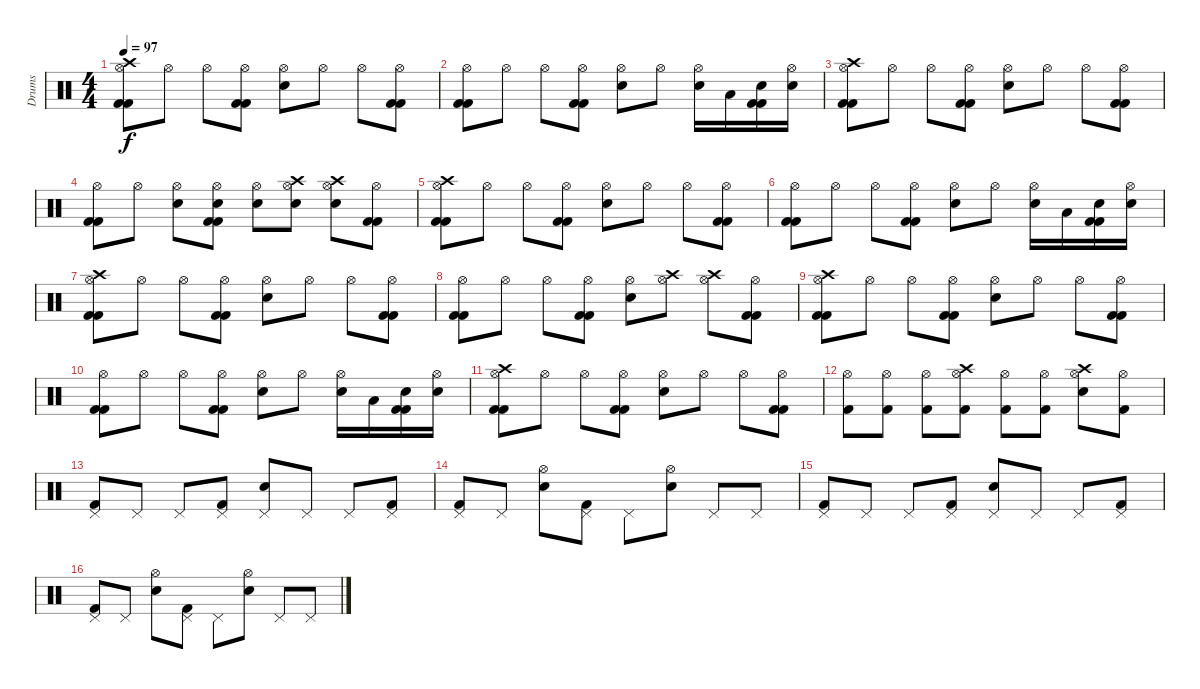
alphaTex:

\track ("Drums" "Drums") {instrument percussion}
\staff {score}
\articulation defaults
\ts (4 4)
\tempo 97
\clef neutral
\ks c
("Hi-Hat (open)" "Crash high (hit)" "Kick (hit) 2" "Kick (hit) 2").8{dy f} "Hi-Hat (open)".8 "Hi-Hat (open)".8 ("Hi-Hat (open)" "Kick (hit) 2" "Kick (hit) 2").8 ("Hi-Hat (open)" "Electric Snare (hit)").8 "Hi-Hat (open)".8 "Hi-Hat (open)".8 ("Hi-Hat (open)" "Kick (hit) 2" "Kick (hit) 2").8 |
("Hi-Hat (open)" "Kick (hit) 2" "Kick (hit) 2").8 "Hi-Hat (open)".8 "Hi-Hat (open)".8 ("Hi-Hat (open)" "Kick (hit) 2" "Kick (hit) 2").8 ("Hi-Hat (open)" "Electric Snare (hit)").8 "Hi-Hat (open)".8 ("Hi-Hat (open)" "Electric Snare (hit)").16 "Low Tom (hit)".16 ("Electric Snare (hit)" "Kick (hit) 2" "Kick (hit) 2").16 ("Hi-Hat (open)" "Electric Snare (hit)").16 |
("Hi-Hat (open)" "Crash high (hit)" "Kick (hit) 2" "Kick (hit) 2").8 "Hi-Hat (open)".8 "Hi-Hat (open)".8 ("Hi-Hat (open)" "Kick (hit) 2" "Kick (hit) 2").8 ("Hi-Hat (open)" "Electric Snare (hit)").8 "Hi-Hat (open)".8 "Hi-Hat (open)".8 ("Hi-Hat (open)" "Kick (hit) 2" "Kick (hit) 2").8 |
("Hi-Hat (open)" "Kick (hit) 2" "Kick (hit) 2").8 "Hi-Hat (open)".8 ("Hi-Hat (open)" "Snare (hit) 2").8 ("Hi-Hat (open)" "Kick (hit) 2" "Snare (hit) 2" "Kick (hit) 2").8 ("Hi-Hat (open)" "Electric Snare (hit)").8 ("Hi-Hat (open)" "Crash high (hit)" "Snare (hit) 2").8 ("Hi-Hat (open)" "Crash high (hit)" "Snare (hit) 2").8 ("Hi-Hat (open)" "Kick (hit) 2" "Kick (hit) 2").8 |
("Hi-Hat (open)" "Crash high (hit)" "Kick (hit) 2" "Kick (hit) 2").8 "Hi-Hat (open)".8 "Hi-Hat (open)".8 ("Hi-Hat (open)" "Kick (hit) 2" "Kick (hit) 2").8 ("Hi-Hat (open)" "Electric Snare (hit)").8 "Hi-Hat (open)".8 "Hi-Hat (open)".8 ("Hi-Hat (open)" "Kick (hit) 2" "Kick (hit) 2").8 |
("Hi-Hat (open)" "Kick (hit) 2" "Kick (hit) 2").8 "Hi-Hat (open)".8 "Hi-Hat (open)".8 ("Hi-Hat (open)" "Kick (hit) 2" "Kick (hit) 2").8 ("Hi-Hat (open)" "Electric Snare (hit)").8 "Hi-Hat (open)".8 ("Hi-Hat (open)" "Electric Snare (hit)").16 "Low Tom (hit)".16 ("Electric Snare (hit)" "Kick (hit) 2" "Kick (hit) 2").16 ("Hi-Hat (open)" "Electric Snare (hit)").16 |
("Hi-Hat (open)" "Crash high (hit)" "Kick (hit) 2" "Kick (hit) 2").8 "Hi-Hat (open)".8 "Hi-Hat (open)".8 ("Hi-Hat (open)" "Kick (hit) 2" "Kick (hit) 2").8 ("Hi-Hat (open)" "Electric Snare (hit)").8 "Hi-Hat (open)".8 "Hi-Hat (open)".8 ("Hi-Hat (open)" "Kick (hit) 2" "Kick (hit) 2").8 |
("Hi-Hat (open)" "Kick (hit) 2" "Kick (hit) 2").8 "Hi-Hat (open)".8 "Hi-Hat (open)".8 ("Hi-Hat (open)" "Kick (hit) 2" "Kick (hit) 2").8 ("Hi-Hat (open)" "Electric Snare (hit)").8 ("Hi-Hat (open)" "Crash high (hit)").8 ("Hi-Hat (open)" "Crash high (hit)").8 ("Hi-Hat (open)" "Kick (hit) 2" "Kick (hit) 2").8 |
("Hi-Hat (open)" "Crash high (hit)" "Kick (hit) 2" "Kick (hit) 2").8 "Hi-Hat (open)".8 "Hi-Hat (open)".8 ("Hi-Hat (open)" "Kick (hit) 2" "Kick (hit) 2").8 ("Hi-Hat (open)" "Electric Snare (hit)").8 "Hi-Hat (open)".8 "Hi-Hat (open)".8 ("Hi-Hat (open)" "Kick (hit) 2" "Kick (hit) 2").8 |
("Hi-Hat (open)" "Kick (hit) 2" "Kick (hit) 2").8 "Hi-Hat (open)".8 "Hi-Hat (open)".8 ("Hi-Hat (open)" "Kick (hit) 2" "Kick (hit) 2").8 ("Hi-Hat (open)" "Electric Snare (hit)").8 "Hi-Hat (open)".8 ("Hi-Hat (open)" "Electric Snare (hit)").16 "Low Tom (hit)".16 ("Electric Snare (hit)" "Kick (hit) 2" "Kick (hit) 2").16 ("Hi-Hat (open)" "Electric Snare (hit)").16 |
("Hi-Hat (open)" "Crash high (hit)" "Kick (hit) 2" "Kick (hit) 2").8 "Hi-Hat (open)".8 "Hi-Hat (open)".8 ("Hi-Hat (open)" "Kick (hit) 2" "Kick (hit) 2").8 ("Hi-Hat (open)" "Electric Snare (hit)").8 "Hi-Hat (open)".8 "Hi-Hat (open)".8 ("Hi-Hat (open)" "Kick (hit) 2" "Kick (hit) 2").8 |
("Hi-Hat (open)" "Kick (hit) 2").8 ("Hi-Hat (open)" "Kick (hit) 2").8 ("Hi-Hat (open)" "Kick (hit) 2").8 ("Hi-Hat (open)" "Crash high (hit)" "Kick (hit) 2").8 ("Hi-Hat (open)" "Kick (hit) 2").8 ("Hi-Hat (open)" "Kick (hit) 2").8 ("Hi-Hat (open)" "Crash high (hit)" "Electric Snare (hit)").8 ("Hi-Hat (open)" "Kick (hit) 2").8 |
("Pedal Hi-Hat (hit)" "Kick (hit) 2").8 "Pedal Hi-Hat (hit)".8 "Pedal Hi-Hat (hit)".8 ("Pedal Hi-Hat (hit)" "Kick (hit) 2").8 ("Pedal Hi-Hat (hit)" "Electric Snare (hit)").8 "Pedal Hi-Hat (hit)".8 "Pedal Hi-Hat (hit)".8 ("Pedal Hi-Hat (hit)" "Kick (hit) 2").8 |
("Pedal Hi-Hat (hit)" "Kick (hit) 2").8 "Pedal Hi-Hat (hit)".8 ("Hi-Hat (open)" "Electric Snare (hit)").8 ("Pedal Hi-Hat (hit)" "Kick (hit) 2").8 "Pedal Hi-Hat (hit)".8 ("Hi-Hat (open)" "Electric Snare (hit)").8 "Pedal Hi-Hat (hit)".8 "Pedal Hi-Hat (hit)".8 |
("Pedal Hi-Hat (hit)" "Kick (hit) 2").8 "Pedal Hi-Hat (hit)".8 "Pedal Hi-Hat (hit)".8 ("Pedal Hi-Hat (hit)" "Kick (hit) 2").8 ("Pedal Hi-Hat (hit)" "Electric Snare (hit)").8 "Pedal Hi-Hat (hit)".8 "Pedal Hi-Hat (hit)".8 ("Pedal Hi-Hat (hit)" "Kick (hit) 2").8 |
("Pedal Hi-Hat (hit)" "Kick (hit) 2").8 "Pedal Hi-Hat (hit)".8 ("Hi-Hat (open)" "Electric Snare (hit)").8 ("Pedal Hi-Hat (hit)" "Kick (hit) 2").8 "Pedal Hi-Hat (hit)".8 ("Hi-Hat (open)" "Electric Snare (hit)").8 "Pedal Hi-Hat (hit)".8 "Pedal Hi-Hat (hit)".8
